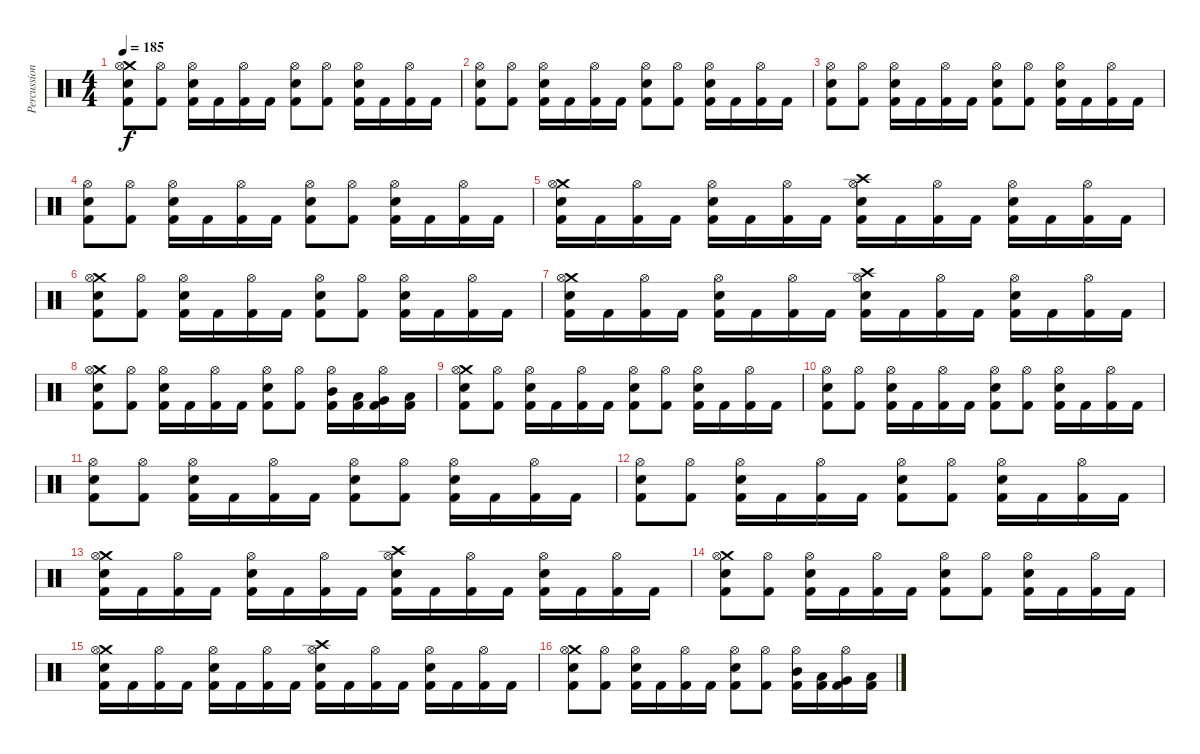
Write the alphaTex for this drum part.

\track ("Percussion" "Percussion") {instrument percussion}
\staff {score}
\articulation defaults
\ts (4 4)
\tempo 185
\clef neutral
\ks c
("Crash medium (hit)" "Hi-Hat (open)" "Electric Snare (hit)" "Kick (hit) 2").8{dy f} ("Hi-Hat (open)" "Kick (hit) 2").8 ("Hi-Hat (open)" "Electric Snare (hit)" "Kick (hit) 2").16 "Kick (hit) 2".16 ("Hi-Hat (open)" "Kick (hit) 2").16 "Kick (hit) 2".16 ("Hi-Hat (open)" "Electric Snare (hit)" "Kick (hit) 2").8 ("Hi-Hat (open)" "Kick (hit) 2").8 ("Hi-Hat (open)" "Electric Snare (hit)" "Kick (hit) 2").16 "Kick (hit) 2".16 ("Hi-Hat (open)" "Kick (hit) 2").16 "Kick (hit) 2".16 |
("Hi-Hat (open)" "Electric Snare (hit)" "Kick (hit) 2").8 ("Hi-Hat (open)" "Kick (hit) 2").8 ("Hi-Hat (open)" "Electric Snare (hit)" "Kick (hit) 2").16 "Kick (hit) 2".16 ("Hi-Hat (open)" "Kick (hit) 2").16 "Kick (hit) 2".16 ("Hi-Hat (open)" "Electric Snare (hit)" "Kick (hit) 2").8 ("Hi-Hat (open)" "Kick (hit) 2").8 ("Hi-Hat (open)" "Electric Snare (hit)" "Kick (hit) 2").16 "Kick (hit) 2".16 ("Hi-Hat (open)" "Kick (hit) 2").16 "Kick (hit) 2".16 |
("Hi-Hat (open)" "Electric Snare (hit)" "Kick (hit) 2").8 ("Hi-Hat (open)" "Kick (hit) 2").8 ("Hi-Hat (open)" "Electric Snare (hit)" "Kick (hit) 2").16 "Kick (hit) 2".16 ("Hi-Hat (open)" "Kick (hit) 2").16 "Kick (hit) 2".16 ("Hi-Hat (open)" "Electric Snare (hit)" "Kick (hit) 2").8 ("Hi-Hat (open)" "Kick (hit) 2").8 ("Hi-Hat (open)" "Electric Snare (hit)" "Kick (hit) 2").16 "Kick (hit) 2".16 ("Hi-Hat (open)" "Kick (hit) 2").16 "Kick (hit) 2".16 |
("Hi-Hat (open)" "Electric Snare (hit)" "Kick (hit) 2").8 ("Hi-Hat (open)" "Kick (hit) 2").8 ("Hi-Hat (open)" "Electric Snare (hit)" "Kick (hit) 2").16 "Kick (hit) 2".16 ("Hi-Hat (open)" "Kick (hit) 2").16 "Kick (hit) 2".16 ("Hi-Hat (open)" "Electric Snare (hit)" "Kick (hit) 2").8 ("Hi-Hat (open)" "Kick (hit) 2").8 ("Hi-Hat (open)" "Electric Snare (hit)" "Kick (hit) 2").16 "Kick (hit) 2".16 ("Hi-Hat (open)" "Kick (hit) 2").16 "Kick (hit) 2".16 |
("Crash medium (hit)" "Hi-Hat (open)" "Electric Snare (hit)" "Kick (hit) 2").16 "Kick (hit) 2".16 ("Hi-Hat (open)" "Kick (hit) 2").16 "Kick (hit) 2".16 ("Hi-Hat (open)" "Electric Snare (hit)" "Kick (hit) 2").16 "Kick (hit) 2".16 ("Hi-Hat (open)" "Kick (hit) 2").16 "Kick (hit) 2".16 ("Crash high (hit)" "Hi-Hat (open)" "Electric Snare (hit)" "Kick (hit) 2").16 "Kick (hit) 2".16 ("Hi-Hat (open)" "Kick (hit) 2").16 "Kick (hit) 2".16 ("Hi-Hat (open)" "Electric Snare (hit)" "Kick (hit) 2").16 "Kick (hit) 2".16 ("Hi-Hat (open)" "Kick (hit) 2").16 "Kick (hit) 2".16 |
("Crash medium (hit)" "Hi-Hat (open)" "Electric Snare (hit)" "Kick (hit) 2").8 ("Hi-Hat (open)" "Kick (hit) 2").8 ("Hi-Hat (open)" "Electric Snare (hit)" "Kick (hit) 2").16 "Kick (hit) 2".16 ("Hi-Hat (open)" "Kick (hit) 2").16 "Kick (hit) 2".16 ("Hi-Hat (open)" "Electric Snare (hit)" "Kick (hit) 2").8 ("Hi-Hat (open)" "Kick (hit) 2").8 ("Hi-Hat (open)" "Electric Snare (hit)" "Kick (hit) 2").16 "Kick (hit) 2".16 ("Hi-Hat (open)" "Kick (hit) 2").16 "Kick (hit) 2".16 |
("Crash medium (hit)" "Hi-Hat (open)" "Electric Snare (hit)" "Kick (hit) 2").16 "Kick (hit) 2".16 ("Hi-Hat (open)" "Kick (hit) 2").16 "Kick (hit) 2".16 ("Hi-Hat (open)" "Electric Snare (hit)" "Kick (hit) 2").16 "Kick (hit) 2".16 ("Hi-Hat (open)" "Kick (hit) 2").16 "Kick (hit) 2".16 ("Crash high (hit)" "Hi-Hat (open)" "Electric Snare (hit)" "Kick (hit) 2").16 "Kick (hit) 2".16 ("Hi-Hat (open)" "Kick (hit) 2").16 "Kick (hit) 2".16 ("Hi-Hat (open)" "Electric Snare (hit)" "Kick (hit) 2").16 "Kick (hit) 2".16 ("Hi-Hat (open)" "Kick (hit) 2").16 "Kick (hit) 2".16 |
("Crash medium (hit)" "Hi-Hat (open)" "Electric Snare (hit)" "Kick (hit) 2").8 ("Hi-Hat (open)" "Kick (hit) 2").8 ("Hi-Hat (open)" "Electric Snare (hit)" "Kick (hit) 2").16 "Kick (hit) 2".16 ("Hi-Hat (open)" "Kick (hit) 2").16 "Kick (hit) 2".16 ("Hi-Hat (open)" "Electric Snare (hit)" "Kick (hit) 2").8 ("Hi-Hat (open)" "Kick (hit) 2").8 ("Hi-Hat (open)" "Mid Tom (hit)" "Kick (hit) 2").16 ("Low Tom (hit)" "Kick (hit) 2").16 ("Hi-Hat (open)" "Very Low Tom (hit)" "Kick (hit) 2").16 ("Low Floor Tom (hit)" "Kick (hit) 2").16 |
("Crash medium (hit)" "Hi-Hat (open)" "Electric Snare (hit)" "Kick (hit) 2").8 ("Hi-Hat (open)" "Kick (hit) 2").8 ("Hi-Hat (open)" "Electric Snare (hit)" "Kick (hit) 2").16 "Kick (hit) 2".16 ("Hi-Hat (open)" "Kick (hit) 2").16 "Kick (hit) 2".16 ("Hi-Hat (open)" "Electric Snare (hit)" "Kick (hit) 2").8 ("Hi-Hat (open)" "Kick (hit) 2").8 ("Hi-Hat (open)" "Electric Snare (hit)" "Kick (hit) 2").16 "Kick (hit) 2".16 ("Hi-Hat (open)" "Kick (hit) 2").16 "Kick (hit) 2".16 |
("Hi-Hat (open)" "Electric Snare (hit)" "Kick (hit) 2").8 ("Hi-Hat (open)" "Kick (hit) 2").8 ("Hi-Hat (open)" "Electric Snare (hit)" "Kick (hit) 2").16 "Kick (hit) 2".16 ("Hi-Hat (open)" "Kick (hit) 2").16 "Kick (hit) 2".16 ("Hi-Hat (open)" "Electric Snare (hit)" "Kick (hit) 2").8 ("Hi-Hat (open)" "Kick (hit) 2").8 ("Hi-Hat (open)" "Electric Snare (hit)" "Kick (hit) 2").16 "Kick (hit) 2".16 ("Hi-Hat (open)" "Kick (hit) 2").16 "Kick (hit) 2".16 |
("Hi-Hat (open)" "Electric Snare (hit)" "Kick (hit) 2").8 ("Hi-Hat (open)" "Kick (hit) 2").8 ("Hi-Hat (open)" "Electric Snare (hit)" "Kick (hit) 2").16 "Kick (hit) 2".16 ("Hi-Hat (open)" "Kick (hit) 2").16 "Kick (hit) 2".16 ("Hi-Hat (open)" "Electric Snare (hit)" "Kick (hit) 2").8 ("Hi-Hat (open)" "Kick (hit) 2").8 ("Hi-Hat (open)" "Electric Snare (hit)" "Kick (hit) 2").16 "Kick (hit) 2".16 ("Hi-Hat (open)" "Kick (hit) 2").16 "Kick (hit) 2".16 |
("Hi-Hat (open)" "Electric Snare (hit)" "Kick (hit) 2").8 ("Hi-Hat (open)" "Kick (hit) 2").8 ("Hi-Hat (open)" "Electric Snare (hit)" "Kick (hit) 2").16 "Kick (hit) 2".16 ("Hi-Hat (open)" "Kick (hit) 2").16 "Kick (hit) 2".16 ("Hi-Hat (open)" "Electric Snare (hit)" "Kick (hit) 2").8 ("Hi-Hat (open)" "Kick (hit) 2").8 ("Hi-Hat (open)" "Electric Snare (hit)" "Kick (hit) 2").16 "Kick (hit) 2".16 ("Hi-Hat (open)" "Kick (hit) 2").16 "Kick (hit) 2".16 |
("Crash medium (hit)" "Hi-Hat (open)" "Electric Snare (hit)" "Kick (hit) 2").16 "Kick (hit) 2".16 ("Hi-Hat (open)" "Kick (hit) 2").16 "Kick (hit) 2".16 ("Hi-Hat (open)" "Electric Snare (hit)" "Kick (hit) 2").16 "Kick (hit) 2".16 ("Hi-Hat (open)" "Kick (hit) 2").16 "Kick (hit) 2".16 ("Crash high (hit)" "Hi-Hat (open)" "Electric Snare (hit)" "Kick (hit) 2").16 "Kick (hit) 2".16 ("Hi-Hat (open)" "Kick (hit) 2").16 "Kick (hit) 2".16 ("Hi-Hat (open)" "Electric Snare (hit)" "Kick (hit) 2").16 "Kick (hit) 2".16 ("Hi-Hat (open)" "Kick (hit) 2").16 "Kick (hit) 2".16 |
("Crash medium (hit)" "Hi-Hat (open)" "Electric Snare (hit)" "Kick (hit) 2").8 ("Hi-Hat (open)" "Kick (hit) 2").8 ("Hi-Hat (open)" "Electric Snare (hit)" "Kick (hit) 2").16 "Kick (hit) 2".16 ("Hi-Hat (open)" "Kick (hit) 2").16 "Kick (hit) 2".16 ("Hi-Hat (open)" "Electric Snare (hit)" "Kick (hit) 2").8 ("Hi-Hat (open)" "Kick (hit) 2").8 ("Hi-Hat (open)" "Electric Snare (hit)" "Kick (hit) 2").16 "Kick (hit) 2".16 ("Hi-Hat (open)" "Kick (hit) 2").16 "Kick (hit) 2".16 |
("Crash medium (hit)" "Hi-Hat (open)" "Electric Snare (hit)" "Kick (hit) 2").16 "Kick (hit) 2".16 ("Hi-Hat (open)" "Kick (hit) 2").16 "Kick (hit) 2".16 ("Hi-Hat (open)" "Electric Snare (hit)" "Kick (hit) 2").16 "Kick (hit) 2".16 ("Hi-Hat (open)" "Kick (hit) 2").16 "Kick (hit) 2".16 ("Crash high (hit)" "Hi-Hat (open)" "Electric Snare (hit)" "Kick (hit) 2").16 "Kick (hit) 2".16 ("Hi-Hat (open)" "Kick (hit) 2").16 "Kick (hit) 2".16 ("Hi-Hat (open)" "Electric Snare (hit)" "Kick (hit) 2").16 "Kick (hit) 2".16 ("Hi-Hat (open)" "Kick (hit) 2").16 "Kick (hit) 2".16 |
("Crash medium (hit)" "Hi-Hat (open)" "Electric Snare (hit)" "Kick (hit) 2").8 ("Hi-Hat (open)" "Kick (hit) 2").8 ("Hi-Hat (open)" "Electric Snare (hit)" "Kick (hit) 2").16 "Kick (hit) 2".16 ("Hi-Hat (open)" "Kick (hit) 2").16 "Kick (hit) 2".16 ("Hi-Hat (open)" "Electric Snare (hit)" "Kick (hit) 2").8 ("Hi-Hat (open)" "Kick (hit) 2").8 ("Hi-Hat (open)" "Mid Tom (hit)" "Kick (hit) 2").16 ("Low Tom (hit)" "Kick (hit) 2").16 ("Hi-Hat (open)" "Very Low Tom (hit)" "Kick (hit) 2").16 ("Low Floor Tom (hit)" "Kick (hit) 2").16
